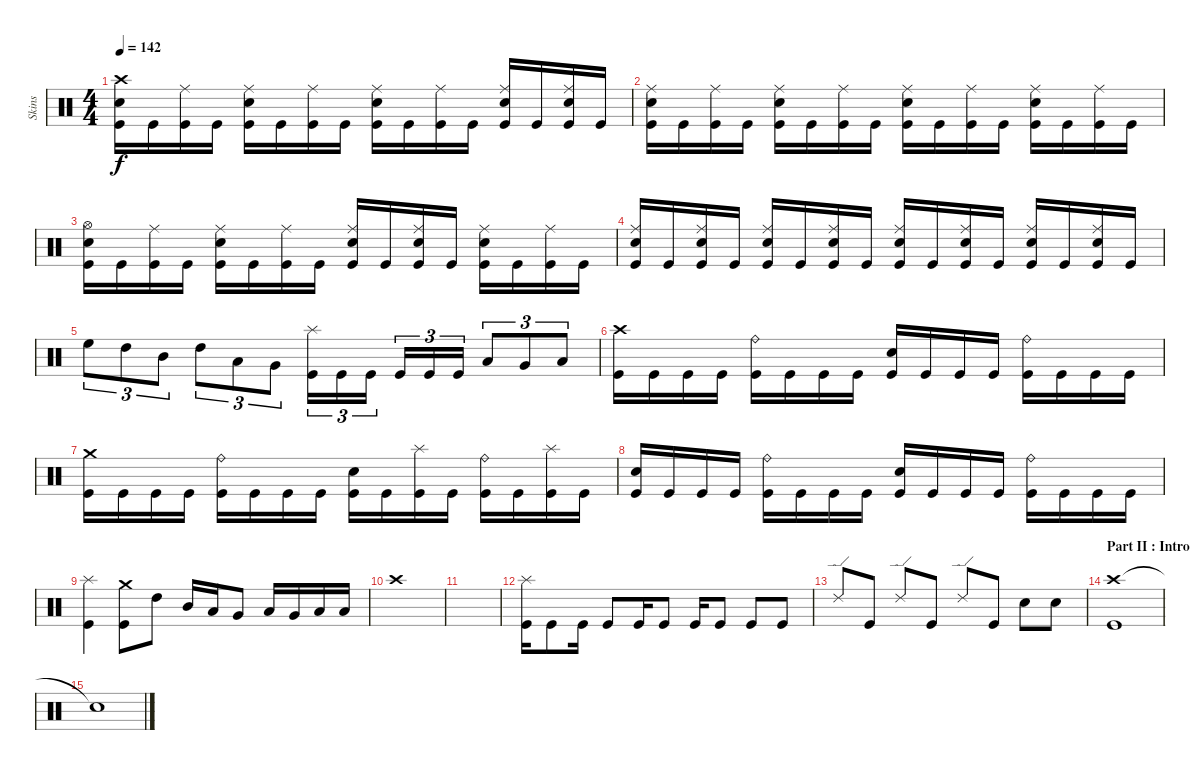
\track ("Skins" "Skins") {instrument percussion}
\staff {score}
\articulation defaults
\ts (4 4)
\tempo 142
\clef neutral
\ks c
("Crash high (hit)" "Electric Snare (hit)" "Kick (hit)").16{dy f} "Kick (hit)".16 ("Ride (middle)" "Kick (hit)").16 "Kick (hit)".16 ("Ride (middle)" "Snare (hit) 2" "Kick (hit)").16 "Kick (hit)".16 ("Ride (middle)" "Kick (hit)").16 "Kick (hit)".16 ("Ride (middle)" "Snare (hit) 2" "Kick (hit)").16 "Kick (hit)".16 ("Ride (middle)" "Kick (hit)").16 "Kick (hit)".16 ("Ride (middle)" "Snare (hit) 2" "Kick (hit)").16 "Kick (hit)".16 ("Ride (middle)" "Snare (hit) 2" "Kick (hit)").16 "Kick (hit)".16 |
("Ride (middle)" "Snare (hit) 2" "Kick (hit)").16 "Kick (hit)".16 ("Ride (middle)" "Kick (hit)").16 "Kick (hit)".16 ("Ride (middle)" "Snare (hit) 2" "Kick (hit)").16 "Kick (hit)".16 ("Ride (middle)" "Kick (hit)").16 "Kick (hit)".16 ("Ride (middle)" "Snare (hit) 2" "Kick (hit)").16 "Kick (hit)".16 ("Ride (middle)" "Kick (hit)").16 "Kick (hit)".16 ("Ride (middle)" "Snare (hit) 2" "Kick (hit)").16 "Kick (hit)".16 ("Ride (middle)" "Kick (hit)").16 "Kick (hit)".16 |
("Hi-Hat (open)" "Electric Snare (hit)" "Kick (hit)").16 "Kick (hit)".16 ("Ride (middle)" "Kick (hit)").16 "Kick (hit)".16 ("Ride (middle)" "Snare (hit) 2" "Kick (hit)").16 "Kick (hit)".16 ("Ride (middle)" "Kick (hit)").16 "Kick (hit)".16 ("Ride (middle)" "Snare (hit) 2" "Kick (hit)").16 "Kick (hit)".16 ("Ride (middle)" "Snare (hit) 2" "Kick (hit)").16 "Kick (hit)".16 ("Ride (middle)" "Snare (hit) 2" "Kick (hit)").16 "Kick (hit)".16 ("Ride (middle)" "Kick (hit)").16 "Kick (hit)".16 |
("Ride (middle)" "Snare (hit) 2" "Kick (hit)").16 "Kick (hit)".16 ("Ride (middle)" "Snare (hit) 2" "Kick (hit)").16 "Kick (hit)".16 ("Ride (middle)" "Snare (hit) 2" "Kick (hit)").16 "Kick (hit)".16 ("Ride (middle)" "Snare (hit) 2" "Kick (hit)").16 "Kick (hit)".16 ("Ride (middle)" "Snare (hit) 2" "Kick (hit)").16 "Kick (hit)".16 ("Ride (middle)" "Snare (hit) 2" "Kick (hit)").16 "Kick (hit)".16 ("Ride (middle)" "Snare (hit) 2" "Kick (hit)").16 "Kick (hit)".16 ("Ride (middle)" "Snare (hit) 2" "Kick (hit)").16 "Kick (hit)".16 |
"High Floor Tom (hit)".8{tu (3 2)} "High Tom (hit)".8{tu (3 2)} "Mid Tom (hit)".8{tu (3 2)} "High Tom (hit)".8{tu (3 2)} "Low Tom (hit)".8{tu (3 2)} "Very Low Tom (hit)".8{tu (3 2)} ("Splash (hit)" "Kick (hit)").16{tu (3 2)} "Kick (hit)".16{tu (3 2)} "Kick (hit)".16{tu (3 2)} "Kick (hit)".16{tu (3 2)} "Kick (hit)".16{tu (3 2)} "Kick (hit)".16{tu (3 2)} "Low Tom (hit)".8{tu (3 2)} "Very Low Tom (hit)".8{tu (3 2)} "Low Floor Tom (hit)".8{tu (3 2)} |
("Crash high (hit)" "Kick (hit)").16 "Kick (hit)".16 "Kick (hit)".16 "Kick (hit)".16 ("Ride (bell)" "Kick (hit)").16 "Kick (hit)".16 "Kick (hit)".16 "Kick (hit)".16 ("Electric Snare (hit)" "Kick (hit)").16 "Kick (hit)".16 "Kick (hit)".16 "Kick (hit)".16 ("Ride (bell)" "Kick (hit)").16 "Kick (hit)".16 "Kick (hit)".16 "Kick (hit)".16 |
("Crash medium (hit)" "Kick (hit)").16 "Kick (hit)".16 "Kick (hit)".16 "Kick (hit)".16 ("Ride (bell)" "Kick (hit)").16 "Kick (hit)".16 "Kick (hit)".16 "Kick (hit)".16 ("Electric Snare (hit)" "Kick (hit)").16 "Kick (hit)".16 ("Splash (hit)" "Kick (hit)").16 "Kick (hit)".16 ("Ride (bell)" "Kick (hit)").16 "Kick (hit)".16 ("Splash (hit)" "Kick (hit)").16 "Kick (hit)".16 |
("Electric Snare (hit)" "Kick (hit)").16 "Kick (hit)".16 "Kick (hit)".16 "Kick (hit)".16 ("Ride (bell)" "Kick (hit)").16 "Kick (hit)".16 "Kick (hit)".16 "Kick (hit)".16 ("Electric Snare (hit)" "Kick (hit)").16 "Kick (hit)".16 "Kick (hit)".16 "Kick (hit)".16 ("Ride (bell)" "Kick (hit)").16 "Kick (hit)".16 "Kick (hit)".16 "Kick (hit)".16 |
("Splash (hit)" "Kick (hit)").4 ("Crash medium (hit)" "Kick (hit)").8 "High Tom (hit)".8 "Mid Tom (hit)".16 "Low Tom (hit)".16 "Very Low Tom (hit)".8 "Low Tom (hit)".16 "Very Low Tom (hit)".16 "Low Floor Tom (hit)".16 "Low Floor Tom (hit)".16 |
"Crash high (hit)".1 |
|
("Splash (hit)" "Kick (hit)").16 "Kick (hit)".8 "Kick (hit)".16 "Kick (hit)".8 "Kick (hit)".16 "Kick (hit)".8 "Kick (hit)".16 "Kick (hit)".8 "Kick (hit)".8 "Kick (hit)".8 |
"Ride (edge) 2".8 "Kick (hit)".8 "Ride (edge) 2".8 "Kick (hit)".8 "Ride (edge) 2".8 "Kick (hit)".8 "Electric Snare (hit)".8 "Snare (hit) 2".8 |
\section ("" "Part II : Intro")
("Crash high (hit)" "Kick (hit)").1 |
"Snare (hit)"{t}.1
